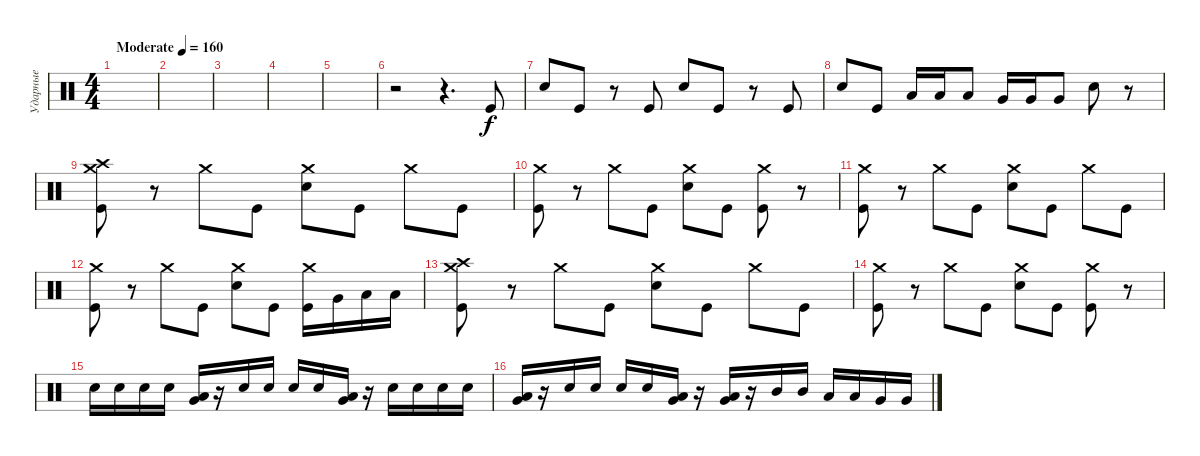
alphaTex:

\track ("Ударные" "Ударные") {instrument percussion}
\staff {score}
\articulation defaults
\ts (4 4)
\tempo (160 "Moderate")
\clef neutral
\ks c
|
|
|
|
|
r.2 r.4{d} "Kick (hit)".8 |
"Electric Snare (hit)".8 "Kick (hit)".8 r.8 "Kick (hit)".8 "Electric Snare (hit)".8 "Kick (hit)".8 r.8 "Kick (hit)".8 |
"Electric Snare (hit)".8 "Kick (hit)".8 "Low Tom (hit)".16 "Low Tom (hit)".16 "Low Tom (hit)".8 "Very Low Tom (hit)".16 "Very Low Tom (hit)".16 "Very Low Tom (hit)".8 "Electric Snare (hit)".8 r.8 |
("Kick (hit)" "Crash medium (hit)" "Crash high (hit)").8 r.8 "Crash medium (hit)".8 "Kick (hit)".8 ("Electric Snare (hit)" "Crash medium (hit)").8 "Kick (hit)".8 "Crash medium (hit)".8 "Kick (hit)".8 |
("Kick (hit)" "Crash medium (hit)").8 r.8 "Crash medium (hit)".8 "Kick (hit)".8 ("Electric Snare (hit)" "Crash medium (hit)").8 "Kick (hit)".8 ("Kick (hit)" "Crash medium (hit)").8 r.8 |
("Kick (hit)" "Crash medium (hit)").8 r.8 "Crash medium (hit)".8 "Kick (hit)".8 ("Electric Snare (hit)" "Crash medium (hit)").8 "Kick (hit)".8 "Crash medium (hit)".8 "Kick (hit)".8 |
("Kick (hit)" "Crash medium (hit)").8 r.8 "Crash medium (hit)".8 "Kick (hit)".8 ("Electric Snare (hit)" "Crash medium (hit)").8 "Kick (hit)".8 ("Kick (hit)" "Crash medium (hit)").16 "Very Low Tom (hit)".16 "Low Tom (hit)".16 "Low Tom (hit)".16 |
("Kick (hit)" "Crash medium (hit)" "Crash high (hit)").8 r.8 "Crash medium (hit)".8 "Kick (hit)".8 ("Electric Snare (hit)" "Crash medium (hit)").8 "Kick (hit)".8 "Crash medium (hit)".8 "Kick (hit)".8 |
("Kick (hit)" "Crash medium (hit)").8 r.8 "Crash medium (hit)".8 "Kick (hit)".8 ("Electric Snare (hit)" "Crash medium (hit)").8 "Kick (hit)".8 ("Kick (hit)" "Crash medium (hit)").8 r.8 |
"Electric Snare (hit)".16 "Electric Snare (hit)".16 "Electric Snare (hit)".16 "Electric Snare (hit)".16 ("Very Low Tom (hit)" "Low Floor Tom (hit)").16 r.16 "Electric Snare (hit)".16 "Electric Snare (hit)".16 "Electric Snare (hit)".16 "Electric Snare (hit)".16 ("Very Low Tom (hit)" "Low Floor Tom (hit)").16 r.16 "Electric Snare (hit)".16 "Electric Snare (hit)".16 "Electric Snare (hit)".16 "Electric Snare (hit)".16 |
("Very Low Tom (hit)" "Low Floor Tom (hit)").16 r.16 "Electric Snare (hit)".16 "Electric Snare (hit)".16 "Electric Snare (hit)".16 "Electric Snare (hit)".16 ("Very Low Tom (hit)" "Low Floor Tom (hit)").16 r.16 ("Very Low Tom (hit)" "Low Floor Tom (hit)").16 r.16 "Mid Tom (hit)".16 "Mid Tom (hit)".16 "Low Tom (hit)".16 "Low Tom (hit)".16 "Very Low Tom (hit)".16 "Very Low Tom (hit)".16
